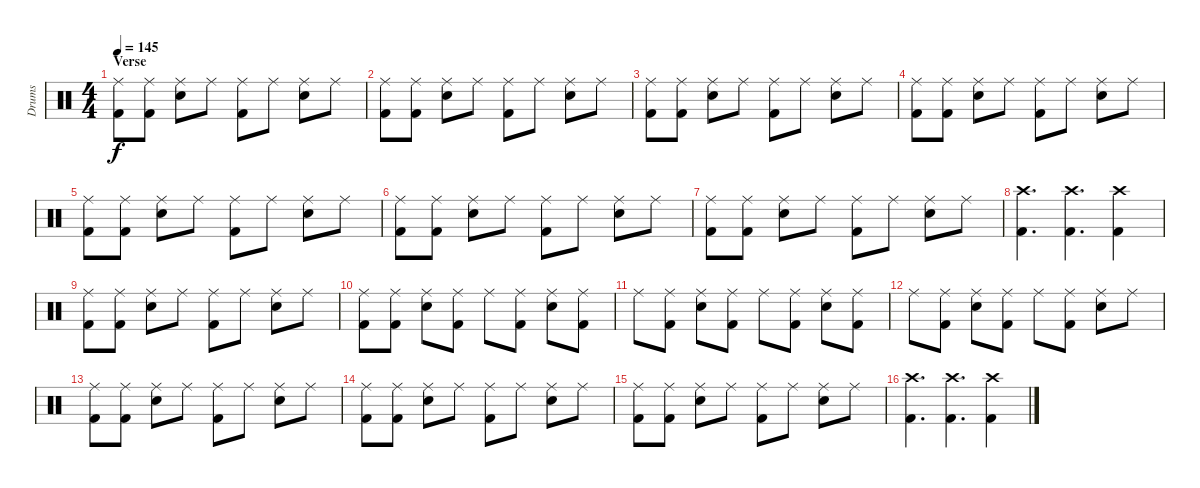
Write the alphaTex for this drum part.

\track ("Drums" "Drums") {instrument percussion}
\staff {score}
\articulation defaults
\ts (4 4)
\section ("" "Verse")
\tempo 145
\clef neutral
\ks c
("Ride (middle)" "Kick (hit) 2").8{dy f} ("Ride (middle)" "Kick (hit) 2").8 ("Ride (middle)" "Electric Snare (hit)").8 "Ride (middle)".8 ("Ride (middle)" "Kick (hit) 2").8 "Ride (middle)".8 ("Ride (middle)" "Electric Snare (hit)").8 "Ride (middle)".8 |
("Ride (middle)" "Kick (hit) 2").8 ("Ride (middle)" "Kick (hit) 2").8 ("Ride (middle)" "Electric Snare (hit)").8 "Ride (middle)".8 ("Ride (middle)" "Kick (hit) 2").8 "Ride (middle)".8 ("Ride (middle)" "Electric Snare (hit)").8 "Ride (middle)".8 |
("Ride (middle)" "Kick (hit) 2").8 ("Ride (middle)" "Kick (hit) 2").8 ("Ride (middle)" "Electric Snare (hit)").8 "Ride (middle)".8 ("Ride (middle)" "Kick (hit) 2").8 "Ride (middle)".8 ("Ride (middle)" "Electric Snare (hit)").8 "Ride (middle)".8 |
("Ride (middle)" "Kick (hit) 2").8 ("Ride (middle)" "Kick (hit) 2").8 ("Ride (middle)" "Electric Snare (hit)").8 "Ride (middle)".8 ("Ride (middle)" "Kick (hit) 2").8 "Ride (middle)".8 ("Ride (middle)" "Electric Snare (hit)").8 "Ride (middle)".8 |
("Ride (middle)" "Kick (hit) 2").8 ("Ride (middle)" "Kick (hit) 2").8 ("Ride (middle)" "Electric Snare (hit)").8 "Ride (middle)".8 ("Ride (middle)" "Kick (hit) 2").8 "Ride (middle)".8 ("Ride (middle)" "Electric Snare (hit)").8 "Ride (middle)".8 |
("Ride (middle)" "Kick (hit) 2").8 ("Ride (middle)" "Kick (hit) 2").8 ("Ride (middle)" "Electric Snare (hit)").8 "Ride (middle)".8 ("Ride (middle)" "Kick (hit) 2").8 "Ride (middle)".8 ("Ride (middle)" "Electric Snare (hit)").8 "Ride (middle)".8 |
("Ride (middle)" "Kick (hit) 2").8 ("Ride (middle)" "Kick (hit) 2").8 ("Ride (middle)" "Electric Snare (hit)").8 "Ride (middle)".8 ("Ride (middle)" "Kick (hit) 2").8 "Ride (middle)".8 ("Ride (middle)" "Electric Snare (hit)").8 "Ride (middle)".8 |
("Crash high (hit)" "Kick (hit) 2").4{d} ("Crash high (hit)" "Kick (hit) 2").4{d} ("Crash high (hit)" "Kick (hit) 2").4 |
("Ride (middle)" "Kick (hit) 2").8 ("Ride (middle)" "Kick (hit) 2").8 ("Ride (middle)" "Electric Snare (hit)").8 "Ride (middle)".8 ("Ride (middle)" "Kick (hit) 2").8 "Ride (middle)".8 ("Ride (middle)" "Electric Snare (hit)").8 "Ride (middle)".8 |
("Ride (middle)" "Kick (hit) 2").8 ("Ride (middle)" "Kick (hit) 2").8 ("Ride (middle)" "Electric Snare (hit)").8 ("Ride (middle)" "Kick (hit) 2").8 "Ride (middle)".8 ("Ride (middle)" "Kick (hit) 2").8 ("Ride (middle)" "Electric Snare (hit)").8 ("Ride (middle)" "Kick (hit) 2").8 |
"Ride (middle)".8 ("Ride (middle)" "Kick (hit) 2").8 ("Ride (middle)" "Electric Snare (hit)").8 ("Ride (middle)" "Kick (hit) 2").8 "Ride (middle)".8 ("Ride (middle)" "Kick (hit) 2").8 ("Ride (middle)" "Electric Snare (hit)").8 ("Ride (middle)" "Kick (hit) 2").8 |
"Ride (middle)".8 ("Ride (middle)" "Kick (hit) 2").8 ("Ride (middle)" "Electric Snare (hit)").8 ("Ride (middle)" "Kick (hit) 2").8 "Ride (middle)".8 ("Ride (middle)" "Kick (hit) 2").8 ("Ride (middle)" "Electric Snare (hit)").8 "Ride (middle)".8 |
("Ride (middle)" "Kick (hit) 2").8 ("Ride (middle)" "Kick (hit) 2").8 ("Ride (middle)" "Electric Snare (hit)").8 "Ride (middle)".8 ("Ride (middle)" "Kick (hit) 2").8 "Ride (middle)".8 ("Ride (middle)" "Electric Snare (hit)").8 "Ride (middle)".8 |
("Ride (middle)" "Kick (hit) 2").8 ("Ride (middle)" "Kick (hit) 2").8 ("Ride (middle)" "Electric Snare (hit)").8 "Ride (middle)".8 ("Ride (middle)" "Kick (hit) 2").8 "Ride (middle)".8 ("Ride (middle)" "Electric Snare (hit)").8 "Ride (middle)".8 |
("Ride (middle)" "Kick (hit) 2").8 ("Ride (middle)" "Kick (hit) 2").8 ("Ride (middle)" "Electric Snare (hit)").8 "Ride (middle)".8 ("Ride (middle)" "Kick (hit) 2").8 "Ride (middle)".8 ("Ride (middle)" "Electric Snare (hit)").8 "Ride (middle)".8 |
("Crash high (hit)" "Kick (hit) 2").4{d} ("Crash high (hit)" "Kick (hit) 2").4{d} ("Crash high (hit)" "Kick (hit) 2").4
